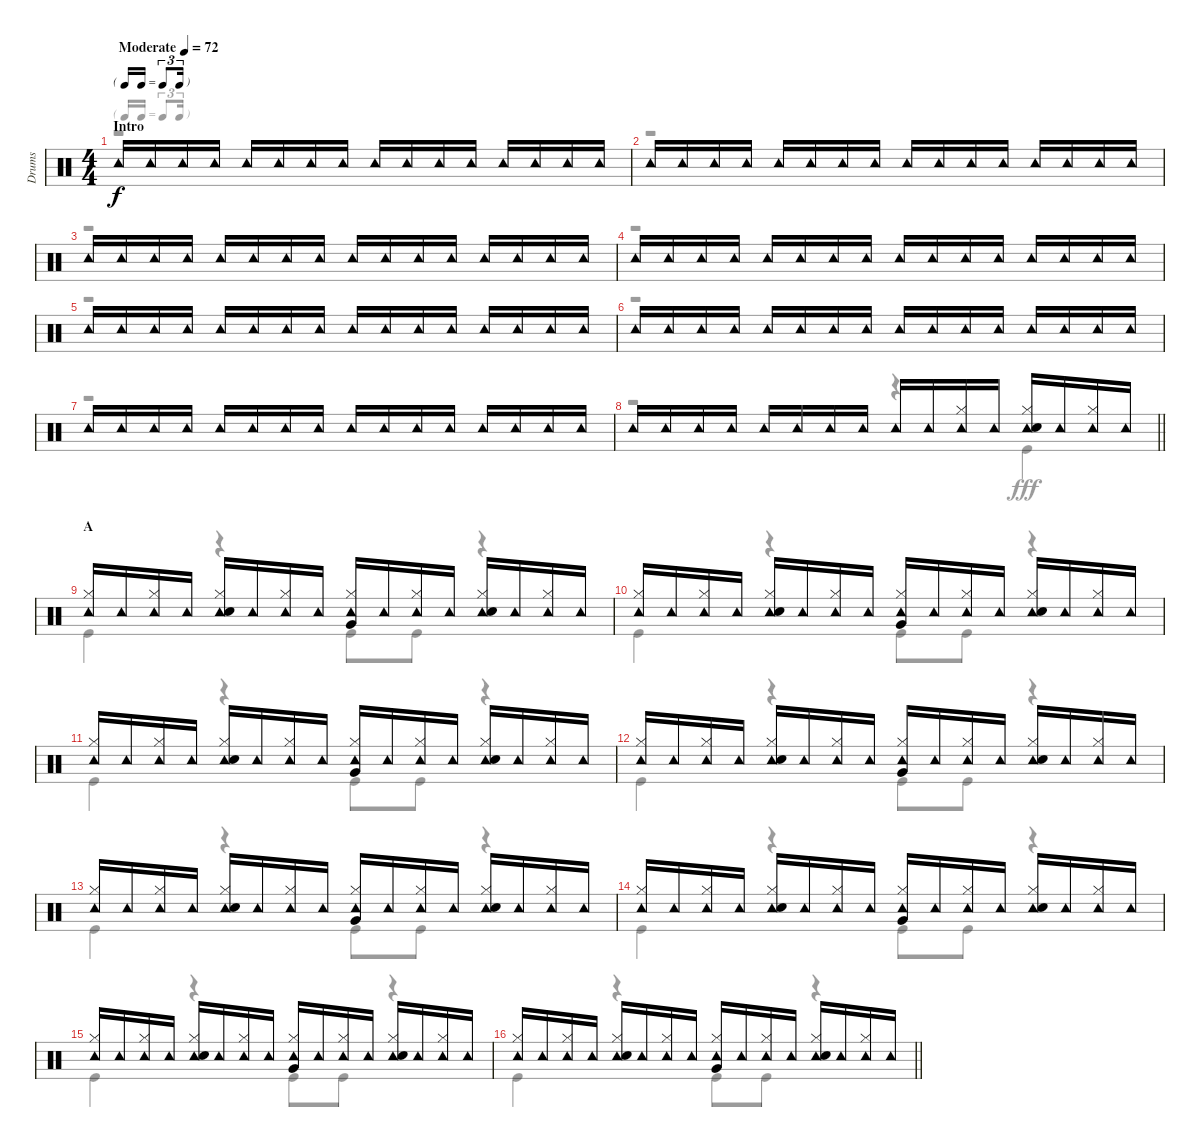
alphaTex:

\track ("Drums" "Drums") {instrument percussion}
\staff {score}
\articulation defaults
\voice
\ts (4 4)
\tf triplet16th
\section ("" "Intro")
\tempo (72 "Moderate")
\clef neutral
\ks c "Tambourine (hit)".16{dy f} "Tambourine (hit)".16 "Tambourine (hit)".16 "Tambourine (hit)".16 "Tambourine (hit)".16 "Tambourine (hit)".16 "Tambourine (hit)".16 "Tambourine (hit)".16 "Tambourine (hit)".16 "Tambourine (hit)".16 "Tambourine (hit)".16 "Tambourine (hit)".16 "Tambourine (hit)".16 "Tambourine (hit)".16 "Tambourine (hit)".16 "Tambourine (hit)".16
|
"Tambourine (hit)".16 "Tambourine (hit)".16 "Tambourine (hit)".16 "Tambourine (hit)".16 "Tambourine (hit)".16 "Tambourine (hit)".16 "Tambourine (hit)".16 "Tambourine (hit)".16 "Tambourine (hit)".16 "Tambourine (hit)".16 "Tambourine (hit)".16 "Tambourine (hit)".16 "Tambourine (hit)".16 "Tambourine (hit)".16 "Tambourine (hit)".16 "Tambourine (hit)".16 |
"Tambourine (hit)".16 "Tambourine (hit)".16 "Tambourine (hit)".16 "Tambourine (hit)".16 "Tambourine (hit)".16 "Tambourine (hit)".16 "Tambourine (hit)".16 "Tambourine (hit)".16 "Tambourine (hit)".16 "Tambourine (hit)".16 "Tambourine (hit)".16 "Tambourine (hit)".16 "Tambourine (hit)".16 "Tambourine (hit)".16 "Tambourine (hit)".16 "Tambourine (hit)".16 |
"Tambourine (hit)".16 "Tambourine (hit)".16 "Tambourine (hit)".16 "Tambourine (hit)".16 "Tambourine (hit)".16 "Tambourine (hit)".16 "Tambourine (hit)".16 "Tambourine (hit)".16 "Tambourine (hit)".16 "Tambourine (hit)".16 "Tambourine (hit)".16 "Tambourine (hit)".16 "Tambourine (hit)".16 "Tambourine (hit)".16 "Tambourine (hit)".16 "Tambourine (hit)".16 |
"Tambourine (hit)".16 "Tambourine (hit)".16 "Tambourine (hit)".16 "Tambourine (hit)".16 "Tambourine (hit)".16 "Tambourine (hit)".16 "Tambourine (hit)".16 "Tambourine (hit)".16 "Tambourine (hit)".16 "Tambourine (hit)".16 "Tambourine (hit)".16 "Tambourine (hit)".16 "Tambourine (hit)".16 "Tambourine (hit)".16 "Tambourine (hit)".16 "Tambourine (hit)".16 |
"Tambourine (hit)".16 "Tambourine (hit)".16 "Tambourine (hit)".16 "Tambourine (hit)".16 "Tambourine (hit)".16 "Tambourine (hit)".16 "Tambourine (hit)".16 "Tambourine (hit)".16 "Tambourine (hit)".16 "Tambourine (hit)".16 "Tambourine (hit)".16 "Tambourine (hit)".16 "Tambourine (hit)".16 "Tambourine (hit)".16 "Tambourine (hit)".16 "Tambourine (hit)".16 |
"Tambourine (hit)".16 "Tambourine (hit)".16 "Tambourine (hit)".16 "Tambourine (hit)".16 "Tambourine (hit)".16 "Tambourine (hit)".16 "Tambourine (hit)".16 "Tambourine (hit)".16 "Tambourine (hit)".16 "Tambourine (hit)".16 "Tambourine (hit)".16 "Tambourine (hit)".16 "Tambourine (hit)".16 "Tambourine (hit)".16 "Tambourine (hit)".16 "Tambourine (hit)".16 |
\barLineRight lightlight "Tambourine (hit)".16 "Tambourine (hit)".16 "Tambourine (hit)".16 "Tambourine (hit)".16 "Tambourine (hit)".16 "Tambourine (hit)".16 "Tambourine (hit)".16 "Tambourine (hit)".16 "Tambourine (hit)".16 "Tambourine (hit)".16
("Tambourine (hit)" "Hi-Hat (closed)").16 "Tambourine (hit)".16 ("Tambourine (hit)" "Snare (hit) 2" "Hi-Hat (closed)").16 "Tambourine (hit)".16 ("Tambourine (hit)" "Hi-Hat (closed)").16 "Tambourine (hit)".16 |
\section ("" "A")
("Tambourine (hit)" "Hi-Hat (closed)").16 "Tambourine (hit)".16 ("Tambourine (hit)" "Hi-Hat (closed)").16 "Tambourine (hit)".16 ("Tambourine (hit)" "Hi-Hat (closed)" "Snare (hit) 2").16 "Tambourine (hit)".16 ("Tambourine (hit)" "Hi-Hat (closed)").16 "Tambourine (hit)".16 ("Tambourine (hit)" "Hi-Hat (closed)" "Very Low Tom (hit)").16 "Tambourine (hit)".16 ("Tambourine (hit)" "Hi-Hat (closed)").16 "Tambourine (hit)".16 ("Tambourine (hit)" "Hi-Hat (closed)" "Snare (hit) 2").16 "Tambourine (hit)".16 ("Tambourine (hit)" "Hi-Hat (closed)").16 "Tambourine (hit)".16 |
("Tambourine (hit)" "Hi-Hat (closed)").16 "Tambourine (hit)".16 ("Tambourine (hit)" "Hi-Hat (closed)").16 "Tambourine (hit)".16 ("Tambourine (hit)" "Hi-Hat (closed)" "Snare (hit) 2").16 "Tambourine (hit)".16 ("Tambourine (hit)" "Hi-Hat (closed)").16 "Tambourine (hit)".16 ("Tambourine (hit)" "Hi-Hat (closed)" "Very Low Tom (hit)").16 "Tambourine (hit)".16 ("Tambourine (hit)" "Hi-Hat (closed)").16 "Tambourine (hit)".16 ("Tambourine (hit)" "Hi-Hat (closed)" "Snare (hit) 2").16 "Tambourine (hit)".16 ("Tambourine (hit)" "Hi-Hat (closed)").16 "Tambourine (hit)".16 |
("Tambourine (hit)" "Hi-Hat (closed)").16 "Tambourine (hit)".16 ("Tambourine (hit)" "Hi-Hat (closed)").16 "Tambourine (hit)".16 ("Tambourine (hit)" "Hi-Hat (closed)" "Snare (hit) 2").16 "Tambourine (hit)".16 ("Tambourine (hit)" "Hi-Hat (closed)").16 "Tambourine (hit)".16 ("Tambourine (hit)" "Hi-Hat (closed)" "Very Low Tom (hit)").16 "Tambourine (hit)".16 ("Tambourine (hit)" "Hi-Hat (closed)").16 "Tambourine (hit)".16 ("Tambourine (hit)" "Hi-Hat (closed)" "Snare (hit) 2").16 "Tambourine (hit)".16 ("Tambourine (hit)" "Hi-Hat (closed)").16 "Tambourine (hit)".16 |
("Tambourine (hit)" "Hi-Hat (closed)").16 "Tambourine (hit)".16 ("Tambourine (hit)" "Hi-Hat (closed)").16 "Tambourine (hit)".16 ("Tambourine (hit)" "Hi-Hat (closed)" "Snare (hit) 2").16 "Tambourine (hit)".16 ("Tambourine (hit)" "Hi-Hat (closed)").16 "Tambourine (hit)".16 ("Tambourine (hit)" "Hi-Hat (closed)" "Very Low Tom (hit)").16 "Tambourine (hit)".16 ("Tambourine (hit)" "Hi-Hat (closed)").16 "Tambourine (hit)".16 ("Tambourine (hit)" "Hi-Hat (closed)" "Snare (hit) 2").16 "Tambourine (hit)".16 ("Tambourine (hit)" "Hi-Hat (closed)").16 "Tambourine (hit)".16 |
("Tambourine (hit)" "Hi-Hat (closed)").16 "Tambourine (hit)".16 ("Tambourine (hit)" "Hi-Hat (closed)").16 "Tambourine (hit)".16 ("Tambourine (hit)" "Hi-Hat (closed)" "Snare (hit) 2").16 "Tambourine (hit)".16 ("Tambourine (hit)" "Hi-Hat (closed)").16 "Tambourine (hit)".16 ("Tambourine (hit)" "Hi-Hat (closed)" "Very Low Tom (hit)").16 "Tambourine (hit)".16 ("Tambourine (hit)" "Hi-Hat (closed)").16 "Tambourine (hit)".16 ("Tambourine (hit)" "Hi-Hat (closed)" "Snare (hit) 2").16 "Tambourine (hit)".16 ("Tambourine (hit)" "Hi-Hat (closed)").16 "Tambourine (hit)".16 |
("Tambourine (hit)" "Hi-Hat (closed)").16 "Tambourine (hit)".16 ("Tambourine (hit)" "Hi-Hat (closed)").16 "Tambourine (hit)".16 ("Tambourine (hit)" "Hi-Hat (closed)" "Snare (hit) 2").16 "Tambourine (hit)".16 ("Tambourine (hit)" "Hi-Hat (closed)").16 "Tambourine (hit)".16 ("Tambourine (hit)" "Hi-Hat (closed)" "Very Low Tom (hit)").16 "Tambourine (hit)".16 ("Tambourine (hit)" "Hi-Hat (closed)").16 "Tambourine (hit)".16 ("Tambourine (hit)" "Hi-Hat (closed)" "Snare (hit) 2").16 "Tambourine (hit)".16 ("Tambourine (hit)" "Hi-Hat (closed)").16 "Tambourine (hit)".16 |
("Tambourine (hit)" "Hi-Hat (closed)").16 "Tambourine (hit)".16 ("Tambourine (hit)" "Hi-Hat (closed)").16 "Tambourine (hit)".16 ("Tambourine (hit)" "Hi-Hat (closed)" "Snare (hit) 2").16 "Tambourine (hit)".16 ("Tambourine (hit)" "Hi-Hat (closed)").16 "Tambourine (hit)".16 ("Tambourine (hit)" "Hi-Hat (closed)" "Very Low Tom (hit)").16 "Tambourine (hit)".16 ("Tambourine (hit)" "Hi-Hat (closed)").16 "Tambourine (hit)".16 ("Tambourine (hit)" "Hi-Hat (closed)" "Snare (hit) 2").16 "Tambourine (hit)".16 ("Tambourine (hit)" "Hi-Hat (closed)").16 "Tambourine (hit)".16 |
\barLineRight lightlight
("Tambourine (hit)" "Hi-Hat (closed)").16 "Tambourine (hit)".16 ("Tambourine (hit)" "Hi-Hat (closed)").16 "Tambourine (hit)".16 ("Tambourine (hit)" "Hi-Hat (closed)" "Snare (hit) 2").16 "Tambourine (hit)".16 ("Tambourine (hit)" "Hi-Hat (closed)").16 "Tambourine (hit)".16 ("Tambourine (hit)" "Hi-Hat (closed)" "Very Low Tom (hit)").16 "Tambourine (hit)".16 ("Tambourine (hit)" "Hi-Hat (closed)").16 "Tambourine (hit)".16 ("Tambourine (hit)" "Hi-Hat (closed)" "Snare (hit) 2").16 "Tambourine (hit)".16 ("Tambourine (hit)" "Hi-Hat (closed)").16 "Tambourine (hit)".16
\voice
\clef neutral
\ottava regular
\simile none
\ks c
r.1{dy fff} |
r.1 |
r.1 |
r.1 |
r.1 |
r.1 |
r.1 |
\barLineRight lightlight
r.2 r.4 "Kick (hit)".4 |
"Kick (hit)".4 r.4 "Kick (hit)".8 "Kick (hit)".8 r.4 |
"Kick (hit)".4 r.4 "Kick (hit)".8 "Kick (hit)".8 r.4 |
"Kick (hit)".4 r.4 "Kick (hit)".8 "Kick (hit)".8 r.4 |
"Kick (hit)".4 r.4 "Kick (hit)".8 "Kick (hit)".8 r.4 |
"Kick (hit)".4 r.4 "Kick (hit)".8 "Kick (hit)".8 r.4 |
"Kick (hit)".4 r.4 "Kick (hit)".8 "Kick (hit)".8 r.4 |
"Kick (hit)".4 r.4 "Kick (hit)".8 "Kick (hit)".8 r.4 |
\barLineRight lightlight "Kick (hit)".4
r.4 "Kick (hit)".8 "Kick (hit)".8 r.4
